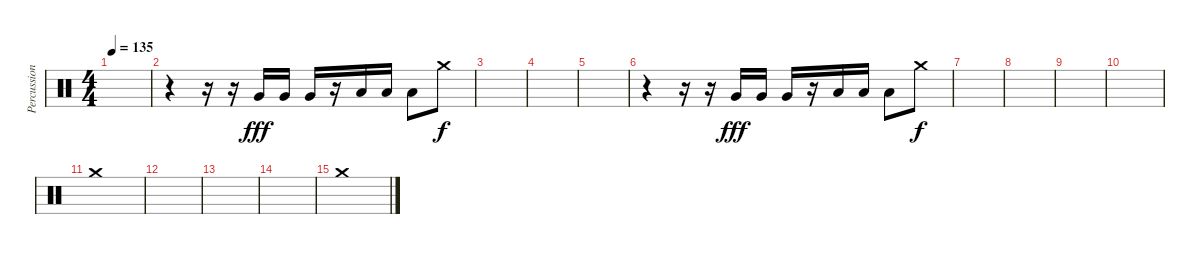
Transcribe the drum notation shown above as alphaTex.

\track ("Percussion" "Percussion") {instrument percussion}
\staff {score}
\articulation defaults
\ts (4 4)
\tempo 135
\clef neutral
\ks c
|
r.4 r.16 r.16 "Very Low Tom (hit)".16{dy fff} "Very Low Tom (hit)".16 "Very Low Tom (hit)".16 r.16 "Low Floor Tom (hit)".16 "Low Floor Tom (hit)".16 "Low Floor Tom (hit)".8 "Crash medium (hit)".8{dy f} |
|
|
|
r.4 r.16 r.16 "Very Low Tom (hit)".16{dy fff} "Very Low Tom (hit)".16 "Very Low Tom (hit)".16 r.16 "Low Floor Tom (hit)".16 "Low Floor Tom (hit)".16 "Low Floor Tom (hit)".8 "Crash medium (hit)".8{dy f} |
|
|
|
|
"Crash medium (hit)".1 |
|
|
|
"Crash medium (hit)".1
